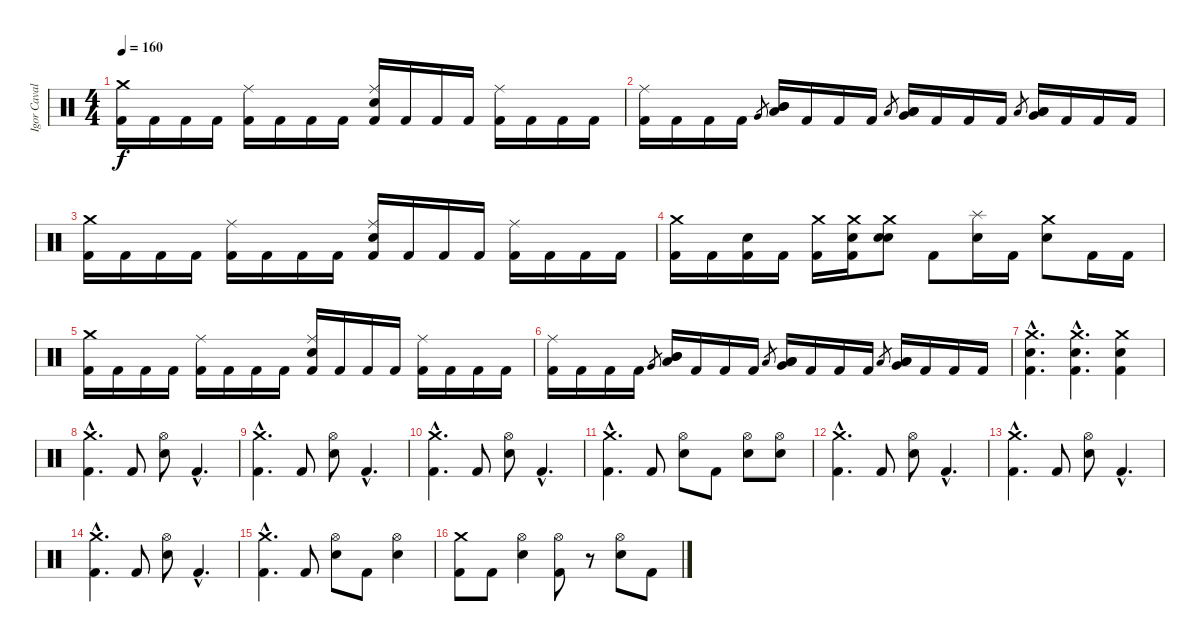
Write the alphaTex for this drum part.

\track ("Igor Cavalera" "Igor Caval") {instrument percussion}
\staff {score}
\articulation defaults
\ts (4 4)
\tempo 160
\clef neutral
\ks c
("Crash medium (hit)" "Kick (hit) 2").16{dy f} "Kick (hit) 2".16 "Kick (hit) 2".16 "Kick (hit) 2".16 ("Ride (middle)" "Kick (hit) 2").16 "Kick (hit) 2".16 "Kick (hit) 2".16 "Kick (hit) 2".16 ("Ride (middle)" "Kick (hit) 2" "Electric Snare (hit)").16 "Kick (hit) 2".16 "Kick (hit) 2".16 "Kick (hit) 2".16 ("Ride (middle)" "Kick (hit) 2").16 "Kick (hit) 2".16 "Kick (hit) 2".16 "Kick (hit) 2".16 |
("Ride (middle)" "Kick (hit) 2").16 "Kick (hit) 2".16 "Kick (hit) 2".16 "Kick (hit) 2".16 "Very Low Tom (hit)".8{gr} ("Mid Tom (hit)" "Mid Tom (hit)" "Low Tom (hit)").16 "Kick (hit) 2".16 "Kick (hit) 2".16 "Kick (hit) 2".16 "Low Floor Tom (hit)".8{gr} ("Low Tom (hit)" "Low Tom (hit)" "Very Low Tom (hit)").16 "Kick (hit) 2".16 "Kick (hit) 2".16 "Kick (hit) 2".16 "Low Floor Tom (hit)".8{gr} ("Low Tom (hit)" "Very Low Tom (hit)" "Low Floor Tom (hit)").16 "Kick (hit) 2".16 "Kick (hit) 2".16 "Kick (hit) 2".16 |
("Crash medium (hit)" "Kick (hit) 2").16 "Kick (hit) 2".16 "Kick (hit) 2".16 "Kick (hit) 2".16 ("Ride (middle)" "Kick (hit) 2").16 "Kick (hit) 2".16 "Kick (hit) 2".16 "Kick (hit) 2".16 ("Ride (middle)" "Kick (hit) 2" "Electric Snare (hit)").16 "Kick (hit) 2".16 "Kick (hit) 2".16 "Kick (hit) 2".16 ("Ride (middle)" "Kick (hit) 2").16 "Kick (hit) 2".16 "Kick (hit) 2".16 "Kick (hit) 2".16 |
("Crash medium (hit)" "Kick (hit) 2").16 "Kick (hit) 2".16 ("Kick (hit) 2" "Electric Snare (hit)").16 "Kick (hit) 2".16 ("Crash medium (hit)" "Kick (hit) 2").16 ("Crash medium (hit)" "Kick (hit) 2" "Electric Snare (hit)").16 ("Crash medium (hit)" "Electric Snare (hit)" "Electric Snare (hit)").8 "Kick (hit) 2".8 ("Splash (hit)" "Electric Snare (hit)").16 "Kick (hit) 2".16 ("Crash medium (hit)" "Electric Snare (hit)").8 "Kick (hit) 2".16 "Kick (hit) 2".16 |
("Crash medium (hit)" "Kick (hit) 2").16 "Kick (hit) 2".16 "Kick (hit) 2".16 "Kick (hit) 2".16 ("Ride (middle)" "Kick (hit) 2").16 "Kick (hit) 2".16 "Kick (hit) 2".16 "Kick (hit) 2".16 ("Ride (middle)" "Kick (hit) 2" "Electric Snare (hit)").16 "Kick (hit) 2".16 "Kick (hit) 2".16 "Kick (hit) 2".16 ("Ride (middle)" "Kick (hit) 2").16 "Kick (hit) 2".16 "Kick (hit) 2".16 "Kick (hit) 2".16 |
("Ride (middle)" "Kick (hit) 2").16 "Kick (hit) 2".16 "Kick (hit) 2".16 "Kick (hit) 2".16 "Very Low Tom (hit)".8{gr} ("Mid Tom (hit)" "Mid Tom (hit)" "Low Tom (hit)").16 "Kick (hit) 2".16 "Kick (hit) 2".16 "Kick (hit) 2".16 "Low Floor Tom (hit)".8{gr} ("Low Tom (hit)" "Low Tom (hit)" "Very Low Tom (hit)").16 "Kick (hit) 2".16 "Kick (hit) 2".16 "Kick (hit) 2".16 "Low Floor Tom (hit)".8{gr} ("Low Tom (hit)" "Very Low Tom (hit)" "Low Floor Tom (hit)").16 "Kick (hit) 2".16 "Kick (hit) 2".16 "Kick (hit) 2".16 |
("Crash medium (hit)"{hac} "Kick (hit) 2"{hac} "Electric Snare (hit)"{hac}).4{d} ("Crash medium (hit)"{hac} "Kick (hit) 2"{hac} "Electric Snare (hit)"{hac}).4{d} ("Crash medium (hit)" "Kick (hit) 2" "Electric Snare (hit)").4 |
("Kick (hit) 2"{hac} "Crash medium (hit)"{hac}).4{d} "Kick (hit) 2".8 ("Electric Snare (hit)" "Hi-Hat (open)").8 "Kick (hit) 2"{hac}.4{d} |
("Kick (hit) 2"{hac} "Crash medium (hit)"{hac}).4{d} "Kick (hit) 2".8 ("Electric Snare (hit)" "Hi-Hat (open)").8 "Kick (hit) 2"{hac}.4{d} |
("Kick (hit) 2"{hac} "Crash medium (hit)"{hac}).4{d} "Kick (hit) 2".8 ("Electric Snare (hit)" "Hi-Hat (open)").8 "Kick (hit) 2"{hac}.4{d} |
("Kick (hit) 2"{hac} "Crash medium (hit)"{hac}).4{d} "Kick (hit) 2".8 ("Electric Snare (hit)" "Hi-Hat (open)").8 "Kick (hit) 2".8 ("Electric Snare (hit)" "Hi-Hat (open)").8 ("Electric Snare (hit)" "Hi-Hat (open)").8 |
("Kick (hit) 2"{hac} "Crash medium (hit)"{hac}).4{d} "Kick (hit) 2".8 ("Electric Snare (hit)" "Hi-Hat (open)").8 "Kick (hit) 2"{hac}.4{d} |
("Kick (hit) 2"{hac} "Crash medium (hit)"{hac}).4{d} "Kick (hit) 2".8 ("Electric Snare (hit)" "Hi-Hat (open)").8 "Kick (hit) 2"{hac}.4{d} |
("Kick (hit) 2"{hac} "Crash medium (hit)"{hac}).4{d} "Kick (hit) 2".8 ("Electric Snare (hit)" "Hi-Hat (open)").8 "Kick (hit) 2"{hac}.4{d} |
("Kick (hit) 2"{hac} "Crash medium (hit)"{hac}).4{d} "Kick (hit) 2".8 ("Electric Snare (hit)" "Hi-Hat (open)").8 "Kick (hit) 2".8 ("Electric Snare (hit)" "Hi-Hat (open)").4 |
("Kick (hit) 2" "Crash medium (hit)").8 "Kick (hit) 2".8 ("Hi-Hat (open)" "Electric Snare (hit)").4 ("Hi-Hat (open)" "Kick (hit) 2").8 r.8 ("Hi-Hat (open)" "Electric Snare (hit)").8 "Kick (hit) 2".8
